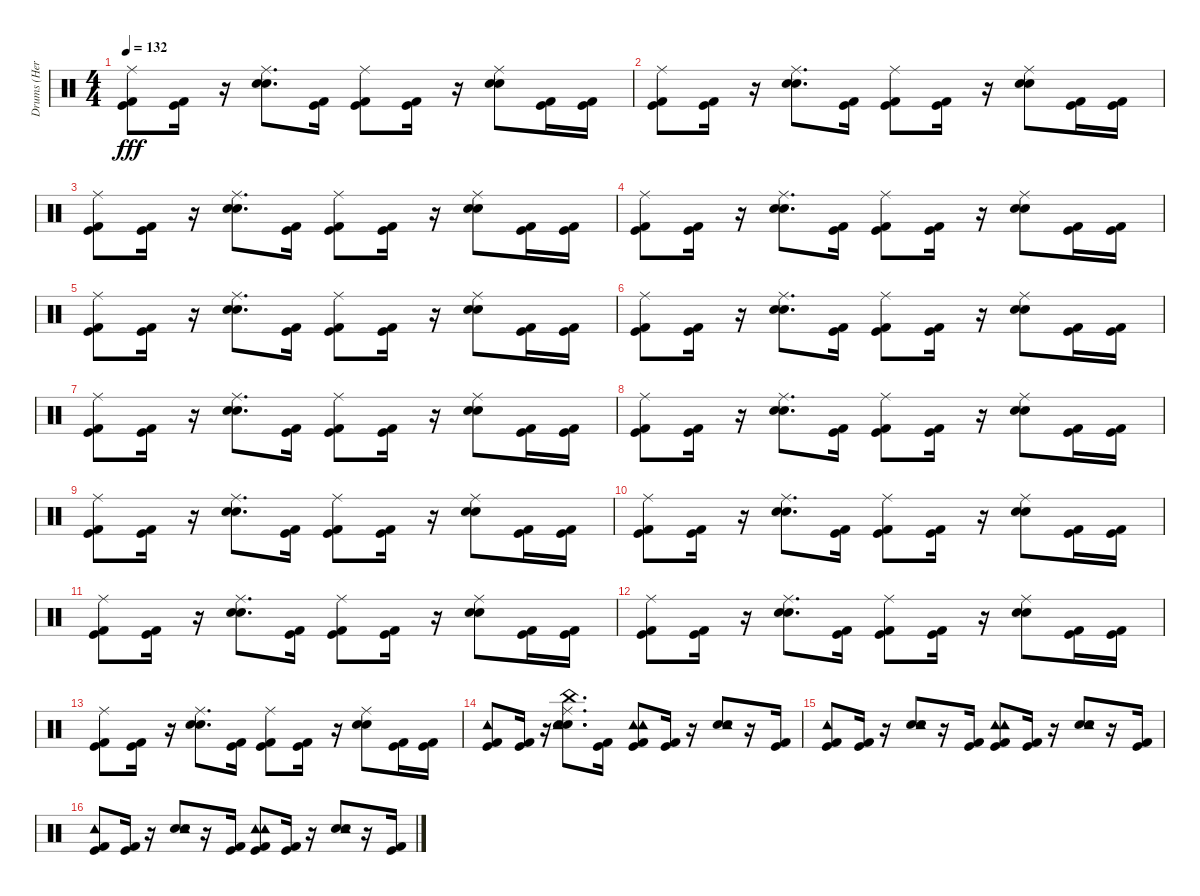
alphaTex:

\track ("Drums (Herb Alexander)" "Drums (Her") {instrument percussion}
\staff {score}
\articulation defaults
\ts (4 4)
\tempo 132
\clef neutral
\ks c
("Ride (middle)" "Kick (hit)" "Kick (hit) 2").8{dy fff} ("Kick (hit)" "Kick (hit) 2").16 r.16 ("Ride (middle)" "Snare (hit) 2" "Hand Clap (hit)").8{d} ("Kick (hit)" "Kick (hit) 2").16 ("Ride (middle)" "Kick (hit)" "Kick (hit) 2").8 ("Kick (hit)" "Kick (hit) 2").16 r.16 ("Ride (middle)" "Snare (hit) 2" "Hand Clap (hit)").8 ("Kick (hit)" "Kick (hit) 2").16 ("Kick (hit)" "Kick (hit) 2").16 |
("Ride (middle)" "Kick (hit)" "Kick (hit) 2").8 ("Kick (hit)" "Kick (hit) 2").16 r.16 ("Ride (middle)" "Snare (hit) 2" "Hand Clap (hit)").8{d} ("Kick (hit)" "Kick (hit) 2").16 ("Ride (middle)" "Kick (hit)" "Kick (hit) 2").8 ("Kick (hit)" "Kick (hit) 2").16 r.16 ("Ride (middle)" "Snare (hit) 2" "Hand Clap (hit)").8 ("Kick (hit)" "Kick (hit) 2").16 ("Kick (hit)" "Kick (hit) 2").16 |
("Ride (middle)" "Kick (hit)" "Kick (hit) 2").8 ("Kick (hit)" "Kick (hit) 2").16 r.16 ("Ride (middle)" "Snare (hit) 2" "Hand Clap (hit)").8{d} ("Kick (hit)" "Kick (hit) 2").16 ("Ride (middle)" "Kick (hit)" "Kick (hit) 2").8 ("Kick (hit)" "Kick (hit) 2").16 r.16 ("Ride (middle)" "Snare (hit) 2" "Hand Clap (hit)").8 ("Kick (hit)" "Kick (hit) 2").16 ("Kick (hit)" "Kick (hit) 2").16 |
("Ride (middle)" "Kick (hit)" "Kick (hit) 2").8 ("Kick (hit)" "Kick (hit) 2").16 r.16 ("Ride (middle)" "Snare (hit) 2" "Hand Clap (hit)").8{d} ("Kick (hit)" "Kick (hit) 2").16 ("Ride (middle)" "Kick (hit)" "Kick (hit) 2").8 ("Kick (hit)" "Kick (hit) 2").16 r.16 ("Ride (middle)" "Snare (hit) 2" "Hand Clap (hit)").8 ("Kick (hit)" "Kick (hit) 2").16 ("Kick (hit)" "Kick (hit) 2").16 |
("Ride (middle)" "Kick (hit)" "Kick (hit) 2").8 ("Kick (hit)" "Kick (hit) 2").16 r.16 ("Ride (middle)" "Snare (hit) 2" "Hand Clap (hit)").8{d} ("Kick (hit)" "Kick (hit) 2").16 ("Ride (middle)" "Kick (hit)" "Kick (hit) 2").8 ("Kick (hit)" "Kick (hit) 2").16 r.16 ("Ride (middle)" "Snare (hit) 2" "Hand Clap (hit)").8 ("Kick (hit)" "Kick (hit) 2").16 ("Kick (hit)" "Kick (hit) 2").16 |
("Ride (middle)" "Kick (hit)" "Kick (hit) 2").8 ("Kick (hit)" "Kick (hit) 2").16 r.16 ("Ride (middle)" "Snare (hit) 2" "Hand Clap (hit)").8{d} ("Kick (hit)" "Kick (hit) 2").16 ("Ride (middle)" "Kick (hit)" "Kick (hit) 2").8 ("Kick (hit)" "Kick (hit) 2").16 r.16 ("Ride (middle)" "Snare (hit) 2" "Hand Clap (hit)").8 ("Kick (hit)" "Kick (hit) 2").16 ("Kick (hit)" "Kick (hit) 2").16 |
("Ride (middle)" "Kick (hit)" "Kick (hit) 2").8 ("Kick (hit)" "Kick (hit) 2").16 r.16 ("Ride (middle)" "Snare (hit) 2" "Hand Clap (hit)").8{d} ("Kick (hit)" "Kick (hit) 2").16 ("Ride (middle)" "Kick (hit)" "Kick (hit) 2").8 ("Kick (hit)" "Kick (hit) 2").16 r.16 ("Ride (middle)" "Snare (hit) 2" "Hand Clap (hit)").8 ("Kick (hit)" "Kick (hit) 2").16 ("Kick (hit)" "Kick (hit) 2").16 |
("Ride (middle)" "Kick (hit)" "Kick (hit) 2").8 ("Kick (hit)" "Kick (hit) 2").16 r.16 ("Ride (middle)" "Snare (hit) 2" "Hand Clap (hit)").8{d} ("Kick (hit)" "Kick (hit) 2").16 ("Ride (middle)" "Kick (hit)" "Kick (hit) 2").8 ("Kick (hit)" "Kick (hit) 2").16 r.16 ("Ride (middle)" "Snare (hit) 2" "Hand Clap (hit)").8 ("Kick (hit)" "Kick (hit) 2").16 ("Kick (hit)" "Kick (hit) 2").16 |
("Ride (middle)" "Kick (hit)" "Kick (hit) 2").8 ("Kick (hit)" "Kick (hit) 2").16 r.16 ("Ride (middle)" "Snare (hit) 2" "Hand Clap (hit)").8{d} ("Kick (hit)" "Kick (hit) 2").16 ("Ride (middle)" "Kick (hit)" "Kick (hit) 2").8 ("Kick (hit)" "Kick (hit) 2").16 r.16 ("Ride (middle)" "Snare (hit) 2" "Hand Clap (hit)").8 ("Kick (hit)" "Kick (hit) 2").16 ("Kick (hit)" "Kick (hit) 2").16 |
("Ride (middle)" "Kick (hit)" "Kick (hit) 2").8 ("Kick (hit)" "Kick (hit) 2").16 r.16 ("Ride (middle)" "Snare (hit) 2" "Hand Clap (hit)").8{d} ("Kick (hit)" "Kick (hit) 2").16 ("Ride (middle)" "Kick (hit)" "Kick (hit) 2").8 ("Kick (hit)" "Kick (hit) 2").16 r.16 ("Ride (middle)" "Snare (hit) 2" "Hand Clap (hit)").8 ("Kick (hit)" "Kick (hit) 2").16 ("Kick (hit)" "Kick (hit) 2").16 |
("Ride (middle)" "Kick (hit)" "Kick (hit) 2").8 ("Kick (hit)" "Kick (hit) 2").16 r.16 ("Ride (middle)" "Snare (hit) 2" "Hand Clap (hit)").8{d} ("Kick (hit)" "Kick (hit) 2").16 ("Ride (middle)" "Kick (hit)" "Kick (hit) 2").8 ("Kick (hit)" "Kick (hit) 2").16 r.16 ("Ride (middle)" "Snare (hit) 2" "Hand Clap (hit)").8 ("Kick (hit)" "Kick (hit) 2").16 ("Kick (hit)" "Kick (hit) 2").16 |
("Ride (middle)" "Kick (hit)" "Kick (hit) 2").8 ("Kick (hit)" "Kick (hit) 2").16 r.16 ("Ride (middle)" "Snare (hit) 2" "Hand Clap (hit)").8{d} ("Kick (hit)" "Kick (hit) 2").16 ("Ride (middle)" "Kick (hit)" "Kick (hit) 2").8 ("Kick (hit)" "Kick (hit) 2").16 r.16 ("Ride (middle)" "Snare (hit) 2" "Hand Clap (hit)").8 ("Kick (hit)" "Kick (hit) 2").16 ("Kick (hit)" "Kick (hit) 2").16 |
("Ride (middle)" "Kick (hit)" "Kick (hit) 2").8 ("Kick (hit)" "Kick (hit) 2").16 r.16 ("Ride (middle)" "Snare (hit) 2" "Hand Clap (hit)").8{d} ("Kick (hit)" "Kick (hit) 2").16 ("Ride (middle)" "Kick (hit)" "Kick (hit) 2").8 ("Kick (hit)" "Kick (hit) 2").16 r.16 ("Ride (middle)" "Snare (hit) 2" "Hand Clap (hit)").8 ("Kick (hit)" "Kick (hit) 2").16 ("Kick (hit)" "Kick (hit) 2").16 |
("Kick (hit)" "Kick (hit) 2" "Tambourine (hit)").8 ("Kick (hit)" "Kick (hit) 2").16 r.16 ("Snare (hit) 2" "Hand Clap (hit)" "Tambourine (hit)" "Tambourine (hit)" "China (hit)" "Ride (middle)").8{d} ("Kick (hit)" "Kick (hit) 2").16 ("Tambourine (hit)" "Kick (hit)" "Kick (hit) 2" "Tambourine (hit)").8 ("Kick (hit)" "Kick (hit) 2").16 r.16 ("Snare (hit) 2" "Hand Clap (hit)" "Tambourine (hit)").8 r.16 ("Kick (hit)" "Kick (hit) 2").16 |
("Tambourine (hit)" "Kick (hit)" "Kick (hit) 2").8 ("Kick (hit)" "Kick (hit) 2").16 r.16 ("Snare (hit) 2" "Hand Clap (hit)" "Tambourine (hit)").8 r.16 ("Kick (hit)" "Kick (hit) 2").16 ("Tambourine (hit)" "Kick (hit)" "Kick (hit) 2" "Tambourine (hit)").8 ("Kick (hit)" "Kick (hit) 2").16 r.16 ("Snare (hit) 2" "Hand Clap (hit)" "Tambourine (hit)").8 r.16 ("Kick (hit)" "Kick (hit) 2").16 |
("Tambourine (hit)" "Kick (hit)" "Kick (hit) 2").8 ("Kick (hit)" "Kick (hit) 2").16 r.16 ("Snare (hit) 2" "Hand Clap (hit)" "Tambourine (hit)").8 r.16 ("Kick (hit)" "Kick (hit) 2").16 ("Tambourine (hit)" "Kick (hit)" "Kick (hit) 2" "Tambourine (hit)").8 ("Kick (hit)" "Kick (hit) 2").16 r.16 ("Snare (hit) 2" "Hand Clap (hit)" "Tambourine (hit)").8 r.16 ("Kick (hit)" "Kick (hit) 2").16
